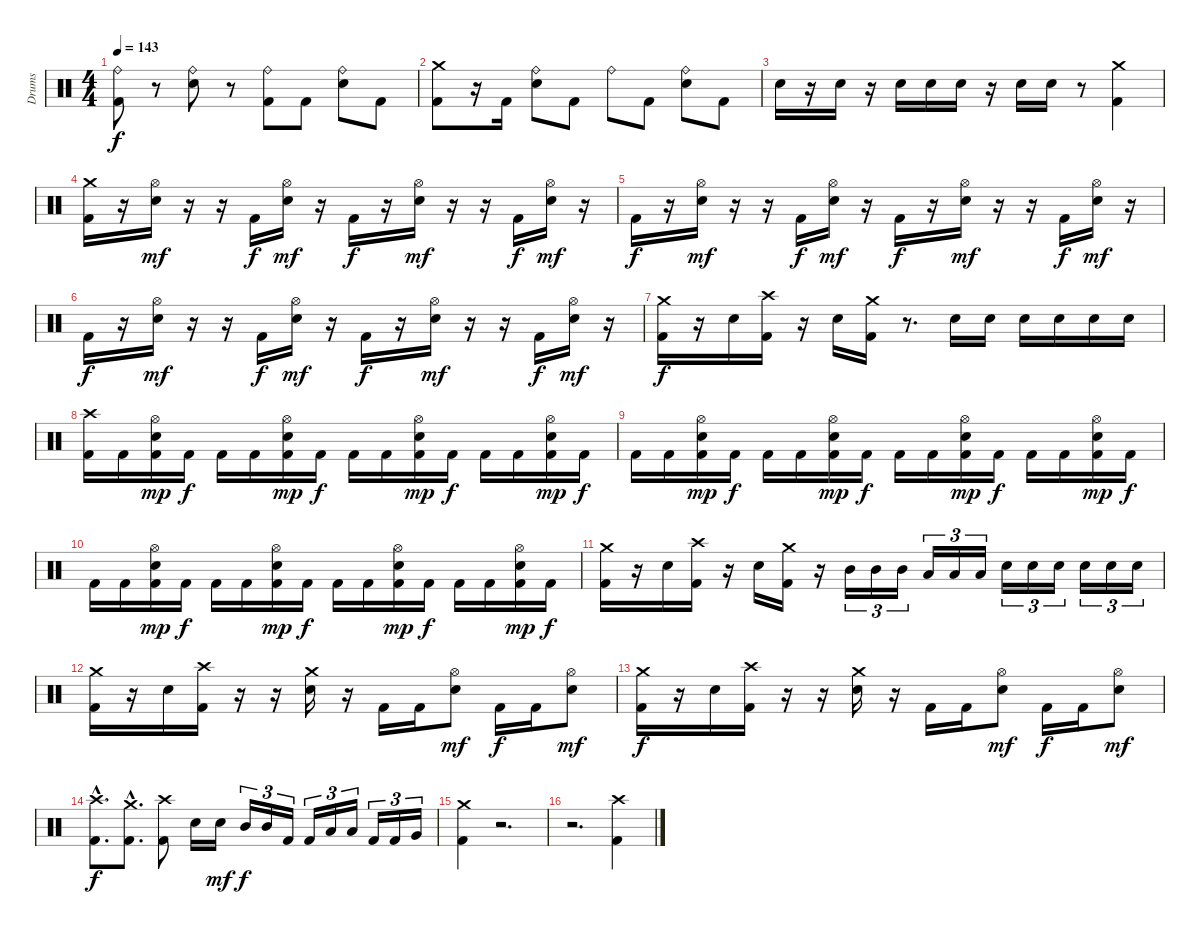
\track ("Drums" "Drums") {instrument percussion}
\staff {score}
\articulation defaults
\ts (4 4)
\tempo 143
\clef neutral
\ks c
("Ride (bell)" "Kick (hit) 2").8{dy f} r.8 ("Ride (bell)" "Electric Snare (hit)").8 r.8 ("Ride (bell)" "Kick (hit) 2").8 "Kick (hit) 2".8 ("Ride (bell)" "Electric Snare (hit)").8 "Kick (hit) 2".8 |
("Crash medium (hit)" "Kick (hit) 2").8 r.16 "Kick (hit) 2".16 ("Ride (bell)" "Electric Snare (hit)").8 "Kick (hit) 2".8 "Ride (bell)".8 "Kick (hit) 2".8 ("Ride (bell)" "Electric Snare (hit)").8 "Kick (hit) 2".8 |
"Electric Snare (hit)".16 r.16 "Electric Snare (hit)".16 r.16 "Electric Snare (hit)".16 "Electric Snare (hit)".16 "Electric Snare (hit)".16 r.16 "Electric Snare (hit)".16 "Electric Snare (hit)".16 r.8 ("Crash medium (hit)" "Kick (hit) 2").4 |
("Crash medium (hit)" "Kick (hit) 2").16 r.16 ("Hi-Hat (open)" "Electric Snare (hit)").16{dy mf} r.16 r.16 "Kick (hit) 2".16{dy f} ("Hi-Hat (open)" "Electric Snare (hit)").16{dy mf} r.16 "Kick (hit) 2".16{dy f} r.16 ("Hi-Hat (open)" "Electric Snare (hit)").16{dy mf} r.16 r.16 "Kick (hit) 2".16{dy f} ("Hi-Hat (open)" "Electric Snare (hit)").16{dy mf} r.16 |
"Kick (hit) 2".16{dy f} r.16 ("Hi-Hat (open)" "Electric Snare (hit)").16{dy mf} r.16 r.16 "Kick (hit) 2".16{dy f} ("Hi-Hat (open)" "Electric Snare (hit)").16{dy mf} r.16 "Kick (hit) 2".16{dy f} r.16 ("Hi-Hat (open)" "Electric Snare (hit)").16{dy mf} r.16 r.16 "Kick (hit) 2".16{dy f} ("Hi-Hat (open)" "Electric Snare (hit)").16{dy mf} r.16 |
"Kick (hit) 2".16{dy f} r.16 ("Hi-Hat (open)" "Electric Snare (hit)").16{dy mf} r.16 r.16 "Kick (hit) 2".16{dy f} ("Hi-Hat (open)" "Electric Snare (hit)").16{dy mf} r.16 "Kick (hit) 2".16{dy f} r.16 ("Hi-Hat (open)" "Electric Snare (hit)").16{dy mf} r.16 r.16 "Kick (hit) 2".16{dy f} ("Hi-Hat (open)" "Electric Snare (hit)").16{dy mf} r.16 |
("Crash medium (hit)" "Kick (hit) 2").16{dy f} r.16 "Electric Snare (hit)".16 ("Crash high (hit)" "Kick (hit) 2").16 r.16 "Electric Snare (hit)".16 ("Crash medium (hit)" "Kick (hit) 2").16 r.8{d} "Electric Snare (hit)".16 "Electric Snare (hit)".16 "Electric Snare (hit)".16 "Electric Snare (hit)".16 "Electric Snare (hit)".16 "Electric Snare (hit)".16 |
("Crash high (hit)" "Kick (hit) 2").16 "Kick (hit) 2".16 ("Hi-Hat (open)" "Electric Snare (hit)" "Kick (hit) 2").16{dy mp} "Kick (hit) 2".16{dy f} "Kick (hit) 2".16 "Kick (hit) 2".16 ("Hi-Hat (open)" "Electric Snare (hit)" "Kick (hit) 2").16{dy mp} "Kick (hit) 2".16{dy f} "Kick (hit) 2".16 "Kick (hit) 2".16 ("Hi-Hat (open)" "Electric Snare (hit)" "Kick (hit) 2").16{dy mp} "Kick (hit) 2".16{dy f} "Kick (hit) 2".16 "Kick (hit) 2".16 ("Hi-Hat (open)" "Electric Snare (hit)" "Kick (hit) 2").16{dy mp} "Kick (hit) 2".16{dy f} |
"Kick (hit) 2".16 "Kick (hit) 2".16 ("Hi-Hat (open)" "Electric Snare (hit)" "Kick (hit) 2").16{dy mp} "Kick (hit) 2".16{dy f} "Kick (hit) 2".16 "Kick (hit) 2".16 ("Hi-Hat (open)" "Electric Snare (hit)" "Kick (hit) 2").16{dy mp} "Kick (hit) 2".16{dy f} "Kick (hit) 2".16 "Kick (hit) 2".16 ("Hi-Hat (open)" "Electric Snare (hit)" "Kick (hit) 2").16{dy mp} "Kick (hit) 2".16{dy f} "Kick (hit) 2".16 "Kick (hit) 2".16 ("Hi-Hat (open)" "Electric Snare (hit)" "Kick (hit) 2").16{dy mp} "Kick (hit) 2".16{dy f} |
"Kick (hit) 2".16 "Kick (hit) 2".16 ("Hi-Hat (open)" "Electric Snare (hit)" "Kick (hit) 2").16{dy mp} "Kick (hit) 2".16{dy f} "Kick (hit) 2".16 "Kick (hit) 2".16 ("Hi-Hat (open)" "Electric Snare (hit)" "Kick (hit) 2").16{dy mp} "Kick (hit) 2".16{dy f} "Kick (hit) 2".16 "Kick (hit) 2".16 ("Hi-Hat (open)" "Electric Snare (hit)" "Kick (hit) 2").16{dy mp} "Kick (hit) 2".16{dy f} "Kick (hit) 2".16 "Kick (hit) 2".16 ("Hi-Hat (open)" "Electric Snare (hit)" "Kick (hit) 2").16{dy mp} "Kick (hit) 2".16{dy f} |
("Crash medium (hit)" "Kick (hit) 2").16 r.16 "Electric Snare (hit)".16 ("Crash high (hit)" "Kick (hit) 2").16 r.16 "Electric Snare (hit)".16 ("Crash medium (hit)" "Kick (hit) 2").16 r.16 "Mid Tom (hit)".16{tu (3 2)} "Mid Tom (hit)".16{tu (3 2)} "Mid Tom (hit)".16{tu (3 2)} "Low Tom (hit)".16{tu (3 2)} "Low Tom (hit)".16{tu (3 2)} "Low Tom (hit)".16{tu (3 2)} "Electric Snare (hit)".16{tu (3 2)} "Electric Snare (hit)".16{tu (3 2)} "Electric Snare (hit)".16{tu (3 2)} "Electric Snare (hit)".16{tu (3 2)} "Electric Snare (hit)".16{tu (3 2)} "Electric Snare (hit)".16{tu (3 2)} |
("Crash medium (hit)" "Kick (hit) 2").16 r.16 "Electric Snare (hit)".16 ("Crash high (hit)" "Kick (hit) 2").16 r.16 r.16 ("Crash medium (hit)" "Electric Snare (hit)").16 r.16 "Kick (hit) 2".16 "Kick (hit) 2".16 ("Hi-Hat (open)" "Electric Snare (hit)").8{dy mf} "Kick (hit) 2".16{dy f} "Kick (hit) 2".16 ("Hi-Hat (open)" "Electric Snare (hit)").8{dy mf} |
("Crash medium (hit)" "Kick (hit) 2").16{dy f} r.16 "Electric Snare (hit)".16 ("Crash high (hit)" "Kick (hit) 2").16 r.16 r.16 ("Crash medium (hit)" "Electric Snare (hit)").16 r.16 "Kick (hit) 2".16 "Kick (hit) 2".16 ("Hi-Hat (open)" "Electric Snare (hit)").8{dy mf} "Kick (hit) 2".16{dy f} "Kick (hit) 2".16 ("Hi-Hat (open)" "Electric Snare (hit)").8{dy mf} |
("Crash high (hit)"{hac} "Kick (hit) 2"{hac}).8{d dy f} ("Crash medium (hit)"{hac} "Kick (hit) 2"{hac}).8{d} ("Crash high (hit)" "Kick (hit) 2").8 "Electric Snare (hit)".16 "Electric Snare (hit)".16{dy mf} "Mid Tom (hit)".16{tu (3 2) dy f} "Mid Tom (hit)".16{tu (3 2)} "Kick (hit) 2".16{tu (3 2)} "Kick (hit) 2".16{tu (3 2)} "Low Tom (hit)".16{tu (3 2)} "Low Tom (hit)".16{tu (3 2)} "Kick (hit) 2".16{tu (3 2)} "Kick (hit) 2".16{tu (3 2)} "Very Low Tom (hit)".16{tu (3 2)} |
("Crash medium (hit)" "Kick (hit) 2").4 r.2{d} |
r.2{d} ("Crash high (hit)" "Kick (hit) 2").4
